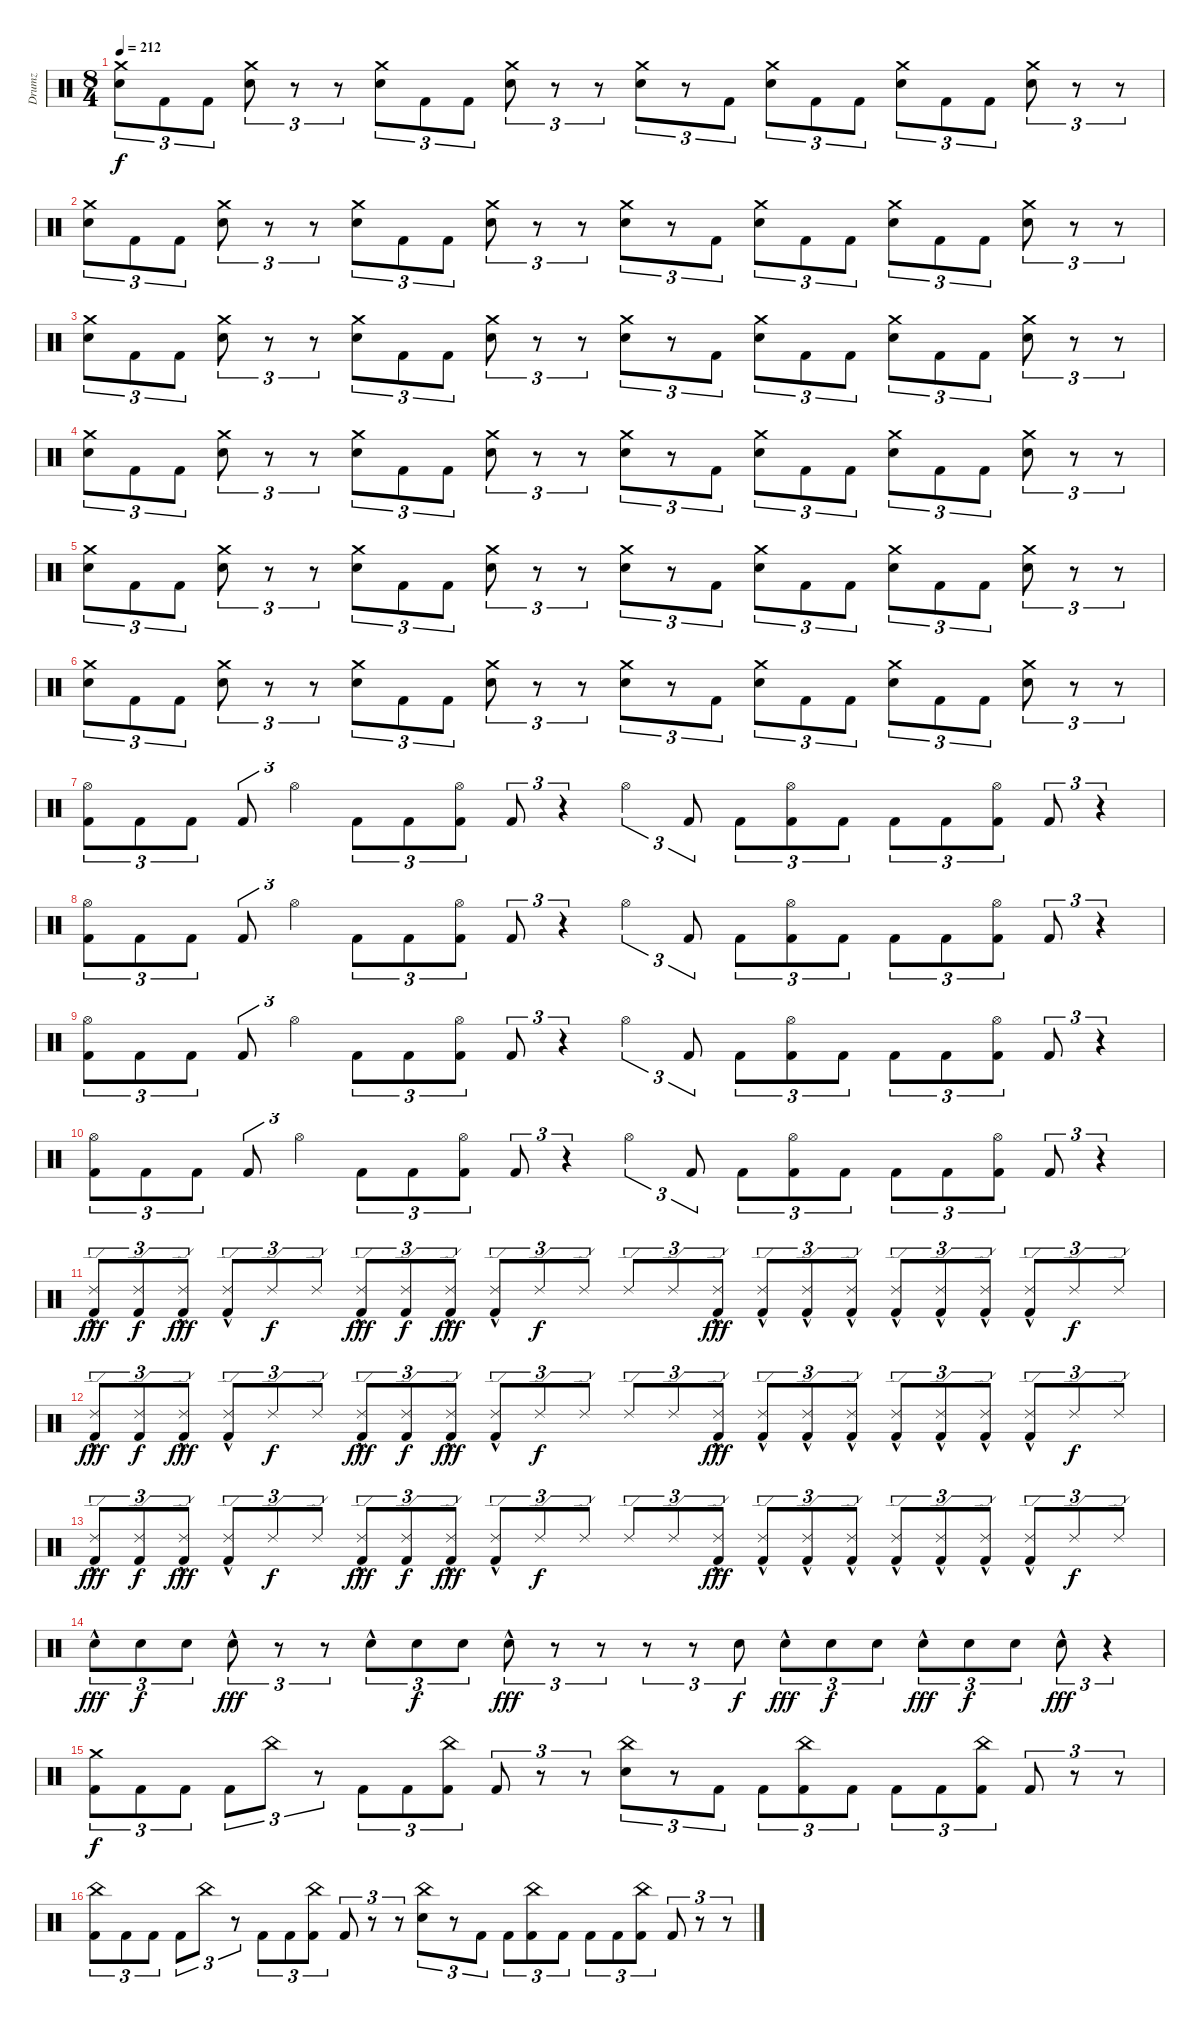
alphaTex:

\track ("Drumz" "Drumz") {instrument percussion}
\staff {score}
\articulation defaults
\ts (8 4)
\tempo 212
\clef neutral
\ks c
("Crash medium (hit)" "Electric Snare (hit)").8{tu (3 2) dy f} "Kick (hit) 2".8{tu (3 2)} "Kick (hit) 2".8{tu (3 2)} ("Crash medium (hit)" "Electric Snare (hit)").8{tu (3 2)} r.8{tu (3 2)} r.8{tu (3 2)} ("Crash medium (hit)" "Electric Snare (hit)").8{tu (3 2)} "Kick (hit) 2".8{tu (3 2)} "Kick (hit) 2".8{tu (3 2)} ("Crash medium (hit)" "Electric Snare (hit)").8{tu (3 2)} r.8{tu (3 2)} r.8{tu (3 2)} ("Crash medium (hit)" "Electric Snare (hit)").8{tu (3 2)} r.8{tu (3 2)} "Kick (hit) 2".8{tu (3 2)} ("Crash medium (hit)" "Electric Snare (hit)").8{tu (3 2)} "Kick (hit) 2".8{tu (3 2)} "Kick (hit) 2".8{tu (3 2)} ("Crash medium (hit)" "Electric Snare (hit)").8{tu (3 2)} "Kick (hit) 2".8{tu (3 2)} "Kick (hit) 2".8{tu (3 2)} ("Crash medium (hit)" "Electric Snare (hit)").8{tu (3 2)} r.8{tu (3 2)} r.8{tu (3 2)} |
("Crash medium (hit)" "Electric Snare (hit)").8{tu (3 2)} "Kick (hit) 2".8{tu (3 2)} "Kick (hit) 2".8{tu (3 2)} ("Crash medium (hit)" "Electric Snare (hit)").8{tu (3 2)} r.8{tu (3 2)} r.8{tu (3 2)} ("Crash medium (hit)" "Electric Snare (hit)").8{tu (3 2)} "Kick (hit) 2".8{tu (3 2)} "Kick (hit) 2".8{tu (3 2)} ("Crash medium (hit)" "Electric Snare (hit)").8{tu (3 2)} r.8{tu (3 2)} r.8{tu (3 2)} ("Crash medium (hit)" "Electric Snare (hit)").8{tu (3 2)} r.8{tu (3 2)} "Kick (hit) 2".8{tu (3 2)} ("Crash medium (hit)" "Electric Snare (hit)").8{tu (3 2)} "Kick (hit) 2".8{tu (3 2)} "Kick (hit) 2".8{tu (3 2)} ("Crash medium (hit)" "Electric Snare (hit)").8{tu (3 2)} "Kick (hit) 2".8{tu (3 2)} "Kick (hit) 2".8{tu (3 2)} ("Crash medium (hit)" "Electric Snare (hit)").8{tu (3 2)} r.8{tu (3 2)} r.8{tu (3 2)} |
("Crash medium (hit)" "Electric Snare (hit)").8{tu (3 2)} "Kick (hit) 2".8{tu (3 2)} "Kick (hit) 2".8{tu (3 2)} ("Crash medium (hit)" "Electric Snare (hit)").8{tu (3 2)} r.8{tu (3 2)} r.8{tu (3 2)} ("Crash medium (hit)" "Electric Snare (hit)").8{tu (3 2)} "Kick (hit) 2".8{tu (3 2)} "Kick (hit) 2".8{tu (3 2)} ("Crash medium (hit)" "Electric Snare (hit)").8{tu (3 2)} r.8{tu (3 2)} r.8{tu (3 2)} ("Crash medium (hit)" "Electric Snare (hit)").8{tu (3 2)} r.8{tu (3 2)} "Kick (hit) 2".8{tu (3 2)} ("Crash medium (hit)" "Electric Snare (hit)").8{tu (3 2)} "Kick (hit) 2".8{tu (3 2)} "Kick (hit) 2".8{tu (3 2)} ("Crash medium (hit)" "Electric Snare (hit)").8{tu (3 2)} "Kick (hit) 2".8{tu (3 2)} "Kick (hit) 2".8{tu (3 2)} ("Crash medium (hit)" "Electric Snare (hit)").8{tu (3 2)} r.8{tu (3 2)} r.8{tu (3 2)} |
("Crash medium (hit)" "Electric Snare (hit)").8{tu (3 2)} "Kick (hit) 2".8{tu (3 2)} "Kick (hit) 2".8{tu (3 2)} ("Crash medium (hit)" "Electric Snare (hit)").8{tu (3 2)} r.8{tu (3 2)} r.8{tu (3 2)} ("Crash medium (hit)" "Electric Snare (hit)").8{tu (3 2)} "Kick (hit) 2".8{tu (3 2)} "Kick (hit) 2".8{tu (3 2)} ("Crash medium (hit)" "Electric Snare (hit)").8{tu (3 2)} r.8{tu (3 2)} r.8{tu (3 2)} ("Crash medium (hit)" "Electric Snare (hit)").8{tu (3 2)} r.8{tu (3 2)} "Kick (hit) 2".8{tu (3 2)} ("Crash medium (hit)" "Electric Snare (hit)").8{tu (3 2)} "Kick (hit) 2".8{tu (3 2)} "Kick (hit) 2".8{tu (3 2)} ("Crash medium (hit)" "Electric Snare (hit)").8{tu (3 2)} "Kick (hit) 2".8{tu (3 2)} "Kick (hit) 2".8{tu (3 2)} ("Crash medium (hit)" "Electric Snare (hit)").8{tu (3 2)} r.8{tu (3 2)} r.8{tu (3 2)} |
("Crash medium (hit)" "Electric Snare (hit)").8{tu (3 2)} "Kick (hit) 2".8{tu (3 2)} "Kick (hit) 2".8{tu (3 2)} ("Crash medium (hit)" "Electric Snare (hit)").8{tu (3 2)} r.8{tu (3 2)} r.8{tu (3 2)} ("Crash medium (hit)" "Electric Snare (hit)").8{tu (3 2)} "Kick (hit) 2".8{tu (3 2)} "Kick (hit) 2".8{tu (3 2)} ("Crash medium (hit)" "Electric Snare (hit)").8{tu (3 2)} r.8{tu (3 2)} r.8{tu (3 2)} ("Crash medium (hit)" "Electric Snare (hit)").8{tu (3 2)} r.8{tu (3 2)} "Kick (hit) 2".8{tu (3 2)} ("Crash medium (hit)" "Electric Snare (hit)").8{tu (3 2)} "Kick (hit) 2".8{tu (3 2)} "Kick (hit) 2".8{tu (3 2)} ("Crash medium (hit)" "Electric Snare (hit)").8{tu (3 2)} "Kick (hit) 2".8{tu (3 2)} "Kick (hit) 2".8{tu (3 2)} ("Crash medium (hit)" "Electric Snare (hit)").8{tu (3 2)} r.8{tu (3 2)} r.8{tu (3 2)} |
("Crash medium (hit)" "Electric Snare (hit)").8{tu (3 2)} "Kick (hit) 2".8{tu (3 2)} "Kick (hit) 2".8{tu (3 2)} ("Crash medium (hit)" "Electric Snare (hit)").8{tu (3 2)} r.8{tu (3 2)} r.8{tu (3 2)} ("Crash medium (hit)" "Electric Snare (hit)").8{tu (3 2)} "Kick (hit) 2".8{tu (3 2)} "Kick (hit) 2".8{tu (3 2)} ("Crash medium (hit)" "Electric Snare (hit)").8{tu (3 2)} r.8{tu (3 2)} r.8{tu (3 2)} ("Crash medium (hit)" "Electric Snare (hit)").8{tu (3 2)} r.8{tu (3 2)} "Kick (hit) 2".8{tu (3 2)} ("Crash medium (hit)" "Electric Snare (hit)").8{tu (3 2)} "Kick (hit) 2".8{tu (3 2)} "Kick (hit) 2".8{tu (3 2)} ("Crash medium (hit)" "Electric Snare (hit)").8{tu (3 2)} "Kick (hit) 2".8{tu (3 2)} "Kick (hit) 2".8{tu (3 2)} ("Crash medium (hit)" "Electric Snare (hit)").8{tu (3 2)} r.8{tu (3 2)} r.8{tu (3 2)} |
("Hi-Hat (open)" "Kick (hit) 2").8{tu (3 2)} "Kick (hit) 2".8{tu (3 2)} "Kick (hit) 2".8{tu (3 2)} "Kick (hit) 2".8{tu (3 2)} "Hi-Hat (open)".4{tu (3 2)} "Kick (hit) 2".8{tu (3 2)} "Kick (hit) 2".8{tu (3 2)} ("Hi-Hat (open)" "Kick (hit) 2").8{tu (3 2)} "Kick (hit) 2".8{tu (3 2)} r.4{tu (3 2)} "Hi-Hat (open)".4{tu (3 2)} "Kick (hit) 2".8{tu (3 2)} "Kick (hit) 2".8{tu (3 2)} ("Hi-Hat (open)" "Kick (hit) 2").8{tu (3 2)} "Kick (hit) 2".8{tu (3 2)} "Kick (hit) 2".8{tu (3 2)} "Kick (hit) 2".8{tu (3 2)} ("Hi-Hat (open)" "Kick (hit) 2").8{tu (3 2)} "Kick (hit) 2".8{tu (3 2)} r.4{tu (3 2)} |
("Hi-Hat (open)" "Kick (hit) 2").8{tu (3 2)} "Kick (hit) 2".8{tu (3 2)} "Kick (hit) 2".8{tu (3 2)} "Kick (hit) 2".8{tu (3 2)} "Hi-Hat (open)".4{tu (3 2)} "Kick (hit) 2".8{tu (3 2)} "Kick (hit) 2".8{tu (3 2)} ("Hi-Hat (open)" "Kick (hit) 2").8{tu (3 2)} "Kick (hit) 2".8{tu (3 2)} r.4{tu (3 2)} "Hi-Hat (open)".4{tu (3 2)} "Kick (hit) 2".8{tu (3 2)} "Kick (hit) 2".8{tu (3 2)} ("Hi-Hat (open)" "Kick (hit) 2").8{tu (3 2)} "Kick (hit) 2".8{tu (3 2)} "Kick (hit) 2".8{tu (3 2)} "Kick (hit) 2".8{tu (3 2)} ("Hi-Hat (open)" "Kick (hit) 2").8{tu (3 2)} "Kick (hit) 2".8{tu (3 2)} r.4{tu (3 2)} |
("Hi-Hat (open)" "Kick (hit) 2").8{tu (3 2)} "Kick (hit) 2".8{tu (3 2)} "Kick (hit) 2".8{tu (3 2)} "Kick (hit) 2".8{tu (3 2)} "Hi-Hat (open)".4{tu (3 2)} "Kick (hit) 2".8{tu (3 2)} "Kick (hit) 2".8{tu (3 2)} ("Hi-Hat (open)" "Kick (hit) 2").8{tu (3 2)} "Kick (hit) 2".8{tu (3 2)} r.4{tu (3 2)} "Hi-Hat (open)".4{tu (3 2)} "Kick (hit) 2".8{tu (3 2)} "Kick (hit) 2".8{tu (3 2)} ("Hi-Hat (open)" "Kick (hit) 2").8{tu (3 2)} "Kick (hit) 2".8{tu (3 2)} "Kick (hit) 2".8{tu (3 2)} "Kick (hit) 2".8{tu (3 2)} ("Hi-Hat (open)" "Kick (hit) 2").8{tu (3 2)} "Kick (hit) 2".8{tu (3 2)} r.4{tu (3 2)} |
("Hi-Hat (open)" "Kick (hit) 2").8{tu (3 2)} "Kick (hit) 2".8{tu (3 2)} "Kick (hit) 2".8{tu (3 2)} "Kick (hit) 2".8{tu (3 2)} "Hi-Hat (open)".4{tu (3 2)} "Kick (hit) 2".8{tu (3 2)} "Kick (hit) 2".8{tu (3 2)} ("Hi-Hat (open)" "Kick (hit) 2").8{tu (3 2)} "Kick (hit) 2".8{tu (3 2)} r.4{tu (3 2)} "Hi-Hat (open)".4{tu (3 2)} "Kick (hit) 2".8{tu (3 2)} "Kick (hit) 2".8{tu (3 2)} ("Hi-Hat (open)" "Kick (hit) 2").8{tu (3 2)} "Kick (hit) 2".8{tu (3 2)} "Kick (hit) 2".8{tu (3 2)} "Kick (hit) 2".8{tu (3 2)} ("Hi-Hat (open)" "Kick (hit) 2").8{tu (3 2)} "Kick (hit) 2".8{tu (3 2)} r.4{tu (3 2)} |
("Ride (edge) 2"{hac} "Kick (hit) 2").8{tu (3 2) dy fff} ("Ride (edge) 2" "Kick (hit) 2").8{tu (3 2) dy f} ("Ride (edge) 2"{hac} "Kick (hit) 2").8{tu (3 2) dy fff} ("Ride (edge) 2"{hac} "Kick (hit) 2").8{tu (3 2)} "Ride (edge) 2".8{tu (3 2) dy f} "Ride (edge) 2".8{tu (3 2)} ("Ride (edge) 2"{hac} "Kick (hit) 2").8{tu (3 2) dy fff} ("Ride (edge) 2" "Kick (hit) 2").8{tu (3 2) dy f} ("Ride (edge) 2"{hac} "Kick (hit) 2").8{tu (3 2) dy fff} ("Ride (edge) 2"{hac} "Kick (hit) 2").8{tu (3 2)} "Ride (edge) 2".8{tu (3 2) dy f} "Ride (edge) 2".8{tu (3 2)} "Ride (edge) 2".8{tu (3 2)} "Ride (edge) 2".8{tu (3 2)} ("Ride (edge) 2"{hac} "Kick (hit) 2").8{tu (3 2) dy fff} ("Ride (edge) 2"{hac} "Kick (hit) 2").8{tu (3 2)} ("Ride (edge) 2"{hac} "Kick (hit) 2").8{tu (3 2)} ("Ride (edge) 2"{hac} "Kick (hit) 2").8{tu (3 2)} ("Ride (edge) 2"{hac} "Kick (hit) 2").8{tu (3 2)} ("Ride (edge) 2"{hac} "Kick (hit) 2").8{tu (3 2)} ("Ride (edge) 2"{hac} "Kick (hit) 2").8{tu (3 2)} ("Ride (edge) 2"{hac} "Kick (hit) 2").8{tu (3 2)} "Ride (edge) 2".8{tu (3 2) dy f} "Ride (edge) 2".8{tu (3 2)} |
("Ride (edge) 2"{hac} "Kick (hit) 2").8{tu (3 2) dy fff} ("Ride (edge) 2" "Kick (hit) 2").8{tu (3 2) dy f} ("Ride (edge) 2"{hac} "Kick (hit) 2").8{tu (3 2) dy fff} ("Ride (edge) 2"{hac} "Kick (hit) 2").8{tu (3 2)} "Ride (edge) 2".8{tu (3 2) dy f} "Ride (edge) 2".8{tu (3 2)} ("Ride (edge) 2"{hac} "Kick (hit) 2").8{tu (3 2) dy fff} ("Ride (edge) 2" "Kick (hit) 2").8{tu (3 2) dy f} ("Ride (edge) 2"{hac} "Kick (hit) 2").8{tu (3 2) dy fff} ("Ride (edge) 2"{hac} "Kick (hit) 2").8{tu (3 2)} "Ride (edge) 2".8{tu (3 2) dy f} "Ride (edge) 2".8{tu (3 2)} "Ride (edge) 2".8{tu (3 2)} "Ride (edge) 2".8{tu (3 2)} ("Ride (edge) 2"{hac} "Kick (hit) 2").8{tu (3 2) dy fff} ("Ride (edge) 2"{hac} "Kick (hit) 2").8{tu (3 2)} ("Ride (edge) 2"{hac} "Kick (hit) 2").8{tu (3 2)} ("Ride (edge) 2"{hac} "Kick (hit) 2").8{tu (3 2)} ("Ride (edge) 2"{hac} "Kick (hit) 2").8{tu (3 2)} ("Ride (edge) 2"{hac} "Kick (hit) 2").8{tu (3 2)} ("Ride (edge) 2"{hac} "Kick (hit) 2").8{tu (3 2)} ("Ride (edge) 2"{hac} "Kick (hit) 2").8{tu (3 2)} "Ride (edge) 2".8{tu (3 2) dy f} "Ride (edge) 2".8{tu (3 2)} |
("Ride (edge) 2"{hac} "Kick (hit) 2").8{tu (3 2) dy fff} ("Ride (edge) 2" "Kick (hit) 2").8{tu (3 2) dy f} ("Ride (edge) 2"{hac} "Kick (hit) 2").8{tu (3 2) dy fff} ("Ride (edge) 2"{hac} "Kick (hit) 2").8{tu (3 2)} "Ride (edge) 2".8{tu (3 2) dy f} "Ride (edge) 2".8{tu (3 2)} ("Ride (edge) 2"{hac} "Kick (hit) 2").8{tu (3 2) dy fff} ("Ride (edge) 2" "Kick (hit) 2").8{tu (3 2) dy f} ("Ride (edge) 2"{hac} "Kick (hit) 2").8{tu (3 2) dy fff} ("Ride (edge) 2"{hac} "Kick (hit) 2").8{tu (3 2)} "Ride (edge) 2".8{tu (3 2) dy f} "Ride (edge) 2".8{tu (3 2)} "Ride (edge) 2".8{tu (3 2)} "Ride (edge) 2".8{tu (3 2)} ("Ride (edge) 2"{hac} "Kick (hit) 2").8{tu (3 2) dy fff} ("Ride (edge) 2"{hac} "Kick (hit) 2").8{tu (3 2)} ("Ride (edge) 2"{hac} "Kick (hit) 2").8{tu (3 2)} ("Ride (edge) 2"{hac} "Kick (hit) 2").8{tu (3 2)} ("Ride (edge) 2"{hac} "Kick (hit) 2").8{tu (3 2)} ("Ride (edge) 2"{hac} "Kick (hit) 2").8{tu (3 2)} ("Ride (edge) 2"{hac} "Kick (hit) 2").8{tu (3 2)} ("Ride (edge) 2"{hac} "Kick (hit) 2").8{tu (3 2)} "Ride (edge) 2".8{tu (3 2) dy f} "Ride (edge) 2".8{tu (3 2)} |
"Electric Snare (hit)"{hac}.8{tu (3 2) dy fff} "Electric Snare (hit)".8{tu (3 2) dy f} "Electric Snare (hit)".8{tu (3 2)} "Electric Snare (hit)"{hac}.8{tu (3 2) dy fff} r.8{tu (3 2)} r.8{tu (3 2)} "Electric Snare (hit)"{hac}.8{tu (3 2)} "Electric Snare (hit)".8{tu (3 2) dy f} "Electric Snare (hit)".8{tu (3 2)} "Electric Snare (hit)"{hac}.8{tu (3 2) dy fff} r.8{tu (3 2)} r.8{tu (3 2)} r.8{tu (3 2)} r.8{tu (3 2)} "Electric Snare (hit)".8{tu (3 2) dy f} "Electric Snare (hit)"{hac}.8{tu (3 2) dy fff} "Electric Snare (hit)".8{tu (3 2) dy f} "Electric Snare (hit)".8{tu (3 2)} "Electric Snare (hit)"{hac}.8{tu (3 2) dy fff} "Electric Snare (hit)".8{tu (3 2) dy f} "Electric Snare (hit)".8{tu (3 2)} "Electric Snare (hit)"{hac}.8{tu (3 2) dy fff} r.4{tu (3 2)} |
("Crash medium (hit)" "Kick (hit) 2").8{tu (3 2) dy f} "Kick (hit) 2".8{tu (3 2)} "Kick (hit) 2".8{tu (3 2)} "Kick (hit) 2".8{tu (3 2)} "China (hit)".8{tu (3 2)} r.8{tu (3 2)} "Kick (hit) 2".8{tu (3 2)} "Kick (hit) 2".8{tu (3 2)} ("China (hit)" "Kick (hit) 2").8{tu (3 2)} "Kick (hit) 2".8{tu (3 2)} r.8{tu (3 2)} r.8{tu (3 2)} ("China (hit)" "Electric Snare (hit)").8{tu (3 2)} r.8{tu (3 2)} "Kick (hit) 2".8{tu (3 2)} "Kick (hit) 2".8{tu (3 2)} ("China (hit)" "Kick (hit) 2").8{tu (3 2)} "Kick (hit) 2".8{tu (3 2)} "Kick (hit) 2".8{tu (3 2)} "Kick (hit) 2".8{tu (3 2)} ("China (hit)" "Kick (hit) 2").8{tu (3 2)} "Kick (hit) 2".8{tu (3 2)} r.8{tu (3 2)} r.8{tu (3 2)} |
("China (hit)" "Kick (hit) 2").8{tu (3 2)} "Kick (hit) 2".8{tu (3 2)} "Kick (hit) 2".8{tu (3 2)} "Kick (hit) 2".8{tu (3 2)} "China (hit)".8{tu (3 2)} r.8{tu (3 2)} "Kick (hit) 2".8{tu (3 2)} "Kick (hit) 2".8{tu (3 2)} ("China (hit)" "Kick (hit) 2").8{tu (3 2)} "Kick (hit) 2".8{tu (3 2)} r.8{tu (3 2)} r.8{tu (3 2)} ("China (hit)" "Electric Snare (hit)").8{tu (3 2)} r.8{tu (3 2)} "Kick (hit) 2".8{tu (3 2)} "Kick (hit) 2".8{tu (3 2)} ("China (hit)" "Kick (hit) 2").8{tu (3 2)} "Kick (hit) 2".8{tu (3 2)} "Kick (hit) 2".8{tu (3 2)} "Kick (hit) 2".8{tu (3 2)} ("China (hit)" "Kick (hit) 2").8{tu (3 2)} "Kick (hit) 2".8{tu (3 2)} r.8{tu (3 2)} r.8{tu (3 2)}
